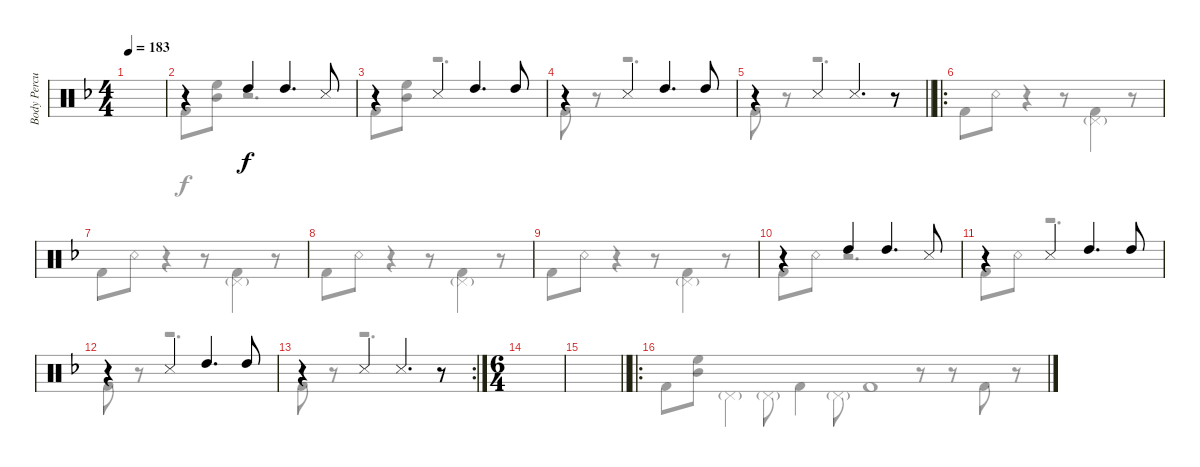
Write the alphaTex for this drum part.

\track ("Body Percussion" "Body Percu") {instrument percussion}
\staff {score}
\articulation defaults
\voice
\ts (4 4)
\tempo 183
\clef neutral
\ks dminor
|
r.4 "High Tom (hit)".4 "High Tom (hit)".4{d} "Snare (side stick) 3".8 |
r.4 "Snare (side stick) 3".4 "High Tom (hit)".4{d} "High Tom (hit)".8 |
r.4 "Snare (side stick) 3".4 "High Tom (hit)".4{d} "High Tom (hit)".8 |
\barLineRight lightlight
r.4 "Snare (side stick) 3".4 "Snare (side stick) 3".4{d} r.8 |
\ro
|
|
|
|
r.4 "High Tom (hit)".4 "High Tom (hit)".4{d} "Snare (side stick) 3".8 |
r.4 "Snare (side stick) 3".4 "High Tom (hit)".4{d} "High Tom (hit)".8 |
r.4 "Snare (side stick) 3".4 "High Tom (hit)".4{d} "High Tom (hit)".8 |
\rc 2
r.4 "Snare (side stick) 3".4 "Snare (side stick) 3".4{d} r.8 |
\ts (6 4)
|
\barLineRight lightlight
|
\ro
\voice
\clef neutral
\ottava regular
\simile none
\ks dminor "Kick (hit) 2".8{dy f}
("High Floor Tom (hit)" "Mid Tom (hit)").8 "Pedal Hi-Hat (hit)"{g}.4 "Pedal Hi-Hat (hit)"{g}.8 "Kick (hit) 2".4 "Pedal Hi-Hat (hit)"{g}.8 |
"Kick (hit) 2".8 ("High Floor Tom (hit)" "Mid Tom (hit)").8 r.2{d} |
"Kick (hit) 2".8 ("High Floor Tom (hit)" "Mid Tom (hit)").8 r.2{d} |
"Kick (hit) 2".8 r.8 r.2{d} |
\barLineRight lightlight "Kick (hit) 2".8
r.8 r.2{d} |
"Kick (hit) 2".8 "Snare (rim shot)".8 r.4 r.8 ("Kick (hit) 2" "Pedal Hi-Hat (hit)"{g}).4 r.8 |
"Kick (hit) 2".8 "Snare (rim shot)".8 r.4 r.8 ("Kick (hit) 2" "Pedal Hi-Hat (hit)"{g}).4 r.8 |
"Kick (hit) 2".8 "Snare (rim shot)".8 r.4 r.8 ("Kick (hit) 2" "Pedal Hi-Hat (hit)"{g}).4 r.8 |
"Kick (hit) 2".8 "Snare (rim shot)".8 r.4 r.8 ("Kick (hit) 2" "Pedal Hi-Hat (hit)"{g}).4 r.8 |
"Kick (hit) 2".8 "Snare (rim shot)".8 r.2{d} |
"Kick (hit) 2".8 "Snare (rim shot)".8 r.2{d} |
"Kick (hit) 2".8 r.8 r.2{d} |
"Kick (hit) 2".8 r.8 r.2{d} |
|
\barLineRight lightlight
|
"Kick (hit) 2".1 r.8 r.8 "Kick (hit) 2".8 r.8
